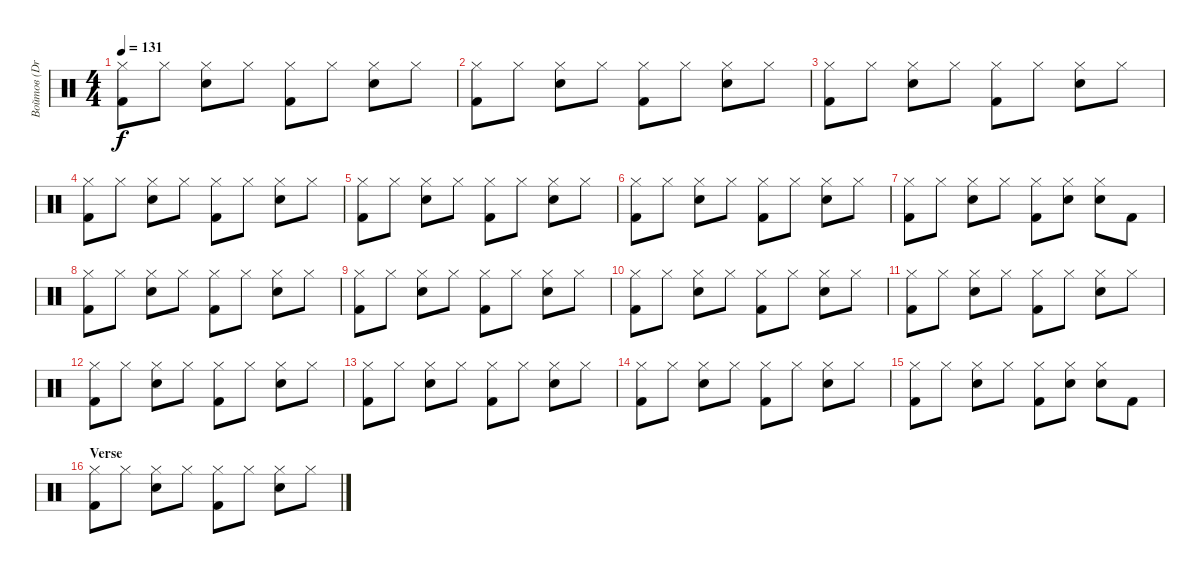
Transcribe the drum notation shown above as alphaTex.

\track ("Войтов (Drums)" "Войтов (Dr") {instrument percussion}
\staff {score}
\articulation defaults
\ts (4 4)
\tempo 131
\clef neutral
\ks c
("Kick (hit) 2" "Hi-Hat (closed)").8{dy f} "Hi-Hat (closed)".8 ("Electric Snare (hit)" "Hi-Hat (closed)").8 "Hi-Hat (closed)".8 ("Kick (hit) 2" "Hi-Hat (closed)").8 "Hi-Hat (closed)".8 ("Electric Snare (hit)" "Hi-Hat (closed)").8 "Hi-Hat (closed)".8 |
("Kick (hit) 2" "Hi-Hat (closed)").8 "Hi-Hat (closed)".8 ("Electric Snare (hit)" "Hi-Hat (closed)").8 "Hi-Hat (closed)".8 ("Kick (hit) 2" "Hi-Hat (closed)").8 "Hi-Hat (closed)".8 ("Electric Snare (hit)" "Hi-Hat (closed)").8 "Hi-Hat (closed)".8 |
("Kick (hit) 2" "Hi-Hat (closed)").8 "Hi-Hat (closed)".8 ("Electric Snare (hit)" "Hi-Hat (closed)").8 "Hi-Hat (closed)".8 ("Kick (hit) 2" "Hi-Hat (closed)").8 "Hi-Hat (closed)".8 ("Electric Snare (hit)" "Hi-Hat (closed)").8 "Hi-Hat (closed)".8 |
("Kick (hit) 2" "Hi-Hat (closed)").8 "Hi-Hat (closed)".8 ("Electric Snare (hit)" "Hi-Hat (closed)").8 "Hi-Hat (closed)".8 ("Kick (hit) 2" "Hi-Hat (closed)").8 "Hi-Hat (closed)".8 ("Electric Snare (hit)" "Hi-Hat (closed)").8 "Hi-Hat (closed)".8 |
("Kick (hit) 2" "Hi-Hat (closed)").8 "Hi-Hat (closed)".8 ("Electric Snare (hit)" "Hi-Hat (closed)").8 "Hi-Hat (closed)".8 ("Kick (hit) 2" "Hi-Hat (closed)").8 "Hi-Hat (closed)".8 ("Electric Snare (hit)" "Hi-Hat (closed)").8 "Hi-Hat (closed)".8 |
("Kick (hit) 2" "Hi-Hat (closed)").8 "Hi-Hat (closed)".8 ("Electric Snare (hit)" "Hi-Hat (closed)").8 "Hi-Hat (closed)".8 ("Kick (hit) 2" "Hi-Hat (closed)").8 "Hi-Hat (closed)".8 ("Electric Snare (hit)" "Hi-Hat (closed)").8 "Hi-Hat (closed)".8 |
("Kick (hit) 2" "Hi-Hat (closed)").8 "Hi-Hat (closed)".8 ("Electric Snare (hit)" "Hi-Hat (closed)").8 "Hi-Hat (closed)".8 ("Kick (hit) 2" "Hi-Hat (closed)").8 ("Electric Snare (hit)" "Hi-Hat (closed)").8 ("Electric Snare (hit)" "Hi-Hat (closed)").8 "Kick (hit) 2".8 |
("Kick (hit) 2" "Hi-Hat (closed)").8 "Hi-Hat (closed)".8 ("Electric Snare (hit)" "Hi-Hat (closed)").8 "Hi-Hat (closed)".8 ("Kick (hit) 2" "Hi-Hat (closed)").8 "Hi-Hat (closed)".8 ("Electric Snare (hit)" "Hi-Hat (closed)").8 "Hi-Hat (closed)".8 |
("Kick (hit) 2" "Hi-Hat (closed)").8 "Hi-Hat (closed)".8 ("Electric Snare (hit)" "Hi-Hat (closed)").8 "Hi-Hat (closed)".8 ("Kick (hit) 2" "Hi-Hat (closed)").8 "Hi-Hat (closed)".8 ("Electric Snare (hit)" "Hi-Hat (closed)").8 "Hi-Hat (closed)".8 |
("Kick (hit) 2" "Hi-Hat (closed)").8 "Hi-Hat (closed)".8 ("Electric Snare (hit)" "Hi-Hat (closed)").8 "Hi-Hat (closed)".8 ("Kick (hit) 2" "Hi-Hat (closed)").8 "Hi-Hat (closed)".8 ("Electric Snare (hit)" "Hi-Hat (closed)").8 "Hi-Hat (closed)".8 |
("Kick (hit) 2" "Hi-Hat (closed)").8 "Hi-Hat (closed)".8 ("Electric Snare (hit)" "Hi-Hat (closed)").8 "Hi-Hat (closed)".8 ("Kick (hit) 2" "Hi-Hat (closed)").8 "Hi-Hat (closed)".8 ("Electric Snare (hit)" "Hi-Hat (closed)").8 "Hi-Hat (closed)".8 |
("Kick (hit) 2" "Hi-Hat (closed)").8 "Hi-Hat (closed)".8 ("Electric Snare (hit)" "Hi-Hat (closed)").8 "Hi-Hat (closed)".8 ("Kick (hit) 2" "Hi-Hat (closed)").8 "Hi-Hat (closed)".8 ("Electric Snare (hit)" "Hi-Hat (closed)").8 "Hi-Hat (closed)".8 |
("Kick (hit) 2" "Hi-Hat (closed)").8 "Hi-Hat (closed)".8 ("Electric Snare (hit)" "Hi-Hat (closed)").8 "Hi-Hat (closed)".8 ("Kick (hit) 2" "Hi-Hat (closed)").8 "Hi-Hat (closed)".8 ("Electric Snare (hit)" "Hi-Hat (closed)").8 "Hi-Hat (closed)".8 |
("Kick (hit) 2" "Hi-Hat (closed)").8 "Hi-Hat (closed)".8 ("Electric Snare (hit)" "Hi-Hat (closed)").8 "Hi-Hat (closed)".8 ("Kick (hit) 2" "Hi-Hat (closed)").8 "Hi-Hat (closed)".8 ("Electric Snare (hit)" "Hi-Hat (closed)").8 "Hi-Hat (closed)".8 |
("Kick (hit) 2" "Hi-Hat (closed)").8 "Hi-Hat (closed)".8 ("Electric Snare (hit)" "Hi-Hat (closed)").8 "Hi-Hat (closed)".8 ("Kick (hit) 2" "Hi-Hat (closed)").8 ("Electric Snare (hit)" "Hi-Hat (closed)").8 ("Electric Snare (hit)" "Hi-Hat (closed)").8 "Kick (hit) 2".8 |
\section ("" "Verse")
("Kick (hit) 2" "Hi-Hat (closed)").8 "Hi-Hat (closed)".8 ("Electric Snare (hit)" "Hi-Hat (closed)").8 "Hi-Hat (closed)".8 ("Kick (hit) 2" "Hi-Hat (closed)").8 "Hi-Hat (closed)".8 ("Electric Snare (hit)" "Hi-Hat (closed)").8 "Hi-Hat (closed)".8
